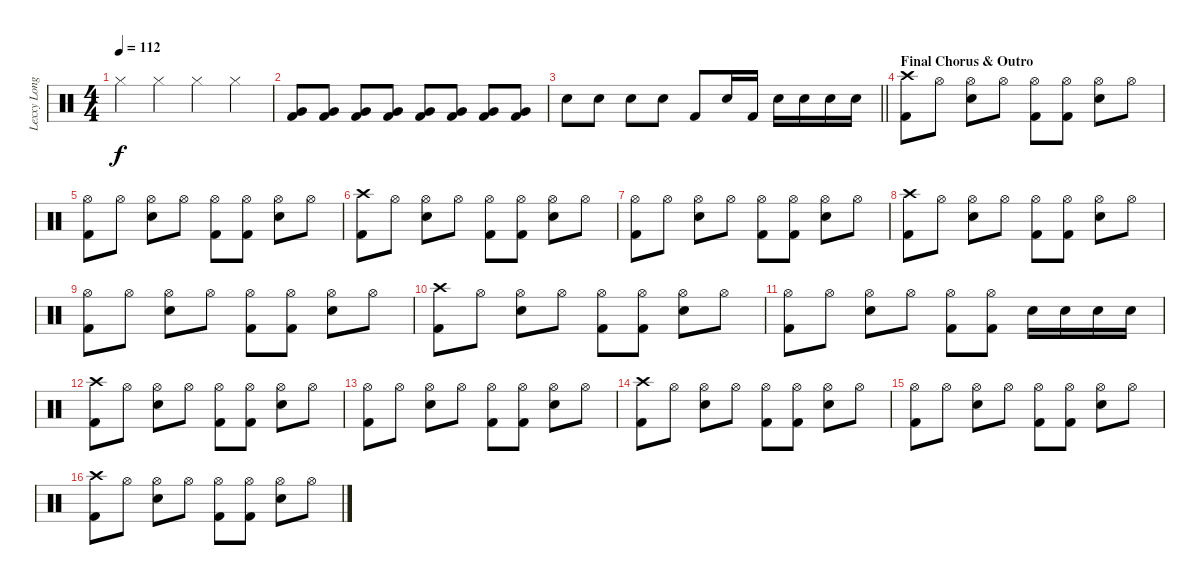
\track ("Lexxy Longlegz (Chuto)" "Lexxy Long") {instrument percussion}
\staff {score}
\articulation defaults
\ts (4 4)
\tempo 112
\clef neutral
\ks c "Hi-Hat (closed)".4{dy f} "Hi-Hat (closed)".4 "Hi-Hat (closed)".4 "Hi-Hat (closed)".4
|
("Very Low Tom (hit)" "Kick (hit) 2").8 ("Very Low Tom (hit)" "Kick (hit) 2").8 ("Very Low Tom (hit)" "Kick (hit) 2").8 ("Very Low Tom (hit)" "Kick (hit) 2").8 ("Very Low Tom (hit)" "Kick (hit) 2").8 ("Very Low Tom (hit)" "Kick (hit) 2").8 ("Very Low Tom (hit)" "Kick (hit) 2").8 ("Very Low Tom (hit)" "Kick (hit) 2").8 |
\barLineRight lightlight "Snare (hit) 2".8 "Snare (hit) 2".8 "Snare (hit) 2".8 "Snare (hit) 2".8 "Kick (hit) 2".8 "Snare (hit) 2".16 "Kick (hit) 2".16 "Snare (hit) 2".16 "Snare (hit) 2".16 "Snare (hit) 2".16 "Snare (hit) 2".16
|
\section ("" "Final Chorus & Outro")
("Crash high (hit)" "Kick (hit) 2").8 "Hi-Hat (open)".8 ("Hi-Hat (open)" "Snare (hit) 2").8 "Hi-Hat (open)".8 ("Hi-Hat (open)" "Kick (hit) 2").8 ("Hi-Hat (open)" "Kick (hit) 2").8 ("Hi-Hat (open)" "Snare (hit) 2").8 "Hi-Hat (open)".8 |
("Hi-Hat (open)" "Kick (hit) 2").8 "Hi-Hat (open)".8 ("Hi-Hat (open)" "Snare (hit) 2").8 "Hi-Hat (open)".8 ("Hi-Hat (open)" "Kick (hit) 2").8 ("Hi-Hat (open)" "Kick (hit) 2").8 ("Hi-Hat (open)" "Snare (hit) 2").8 "Hi-Hat (open)".8 |
("Crash high (hit)" "Kick (hit) 2").8 "Hi-Hat (open)".8 ("Hi-Hat (open)" "Snare (hit) 2").8 "Hi-Hat (open)".8 ("Hi-Hat (open)" "Kick (hit) 2").8 ("Hi-Hat (open)" "Kick (hit) 2").8 ("Hi-Hat (open)" "Snare (hit) 2").8 "Hi-Hat (open)".8 |
("Hi-Hat (open)" "Kick (hit) 2").8 "Hi-Hat (open)".8 ("Hi-Hat (open)" "Snare (hit) 2").8 "Hi-Hat (open)".8 ("Hi-Hat (open)" "Kick (hit) 2").8 ("Hi-Hat (open)" "Kick (hit) 2").8 ("Hi-Hat (open)" "Snare (hit) 2").8 "Hi-Hat (open)".8 |
("Crash high (hit)" "Kick (hit) 2").8 "Hi-Hat (open)".8 ("Hi-Hat (open)" "Snare (hit) 2").8 "Hi-Hat (open)".8 ("Hi-Hat (open)" "Kick (hit) 2").8 ("Hi-Hat (open)" "Kick (hit) 2").8 ("Hi-Hat (open)" "Snare (hit) 2").8 "Hi-Hat (open)".8 |
("Hi-Hat (open)" "Kick (hit) 2").8 "Hi-Hat (open)".8 ("Hi-Hat (open)" "Snare (hit) 2").8 "Hi-Hat (open)".8 ("Hi-Hat (open)" "Kick (hit) 2").8 ("Hi-Hat (open)" "Kick (hit) 2").8 ("Hi-Hat (open)" "Snare (hit) 2").8 "Hi-Hat (open)".8 |
("Crash high (hit)" "Kick (hit) 2").8 "Hi-Hat (open)".8 ("Hi-Hat (open)" "Snare (hit) 2").8 "Hi-Hat (open)".8 ("Hi-Hat (open)" "Kick (hit) 2").8 ("Hi-Hat (open)" "Kick (hit) 2").8 ("Hi-Hat (open)" "Snare (hit) 2").8 "Hi-Hat (open)".8 |
("Hi-Hat (open)" "Kick (hit) 2").8 "Hi-Hat (open)".8 ("Hi-Hat (open)" "Snare (hit) 2").8 "Hi-Hat (open)".8 ("Hi-Hat (open)" "Kick (hit) 2").8 ("Hi-Hat (open)" "Kick (hit) 2").8 "Snare (hit) 2".16 "Snare (hit) 2".16 "Snare (hit) 2".16 "Snare (hit) 2".16 |
("Crash high (hit)" "Kick (hit) 2").8 "Hi-Hat (open)".8 ("Hi-Hat (open)" "Snare (hit) 2").8 "Hi-Hat (open)".8 ("Hi-Hat (open)" "Kick (hit) 2").8 ("Hi-Hat (open)" "Kick (hit) 2").8 ("Hi-Hat (open)" "Snare (hit) 2").8 "Hi-Hat (open)".8 |
("Hi-Hat (open)" "Kick (hit) 2").8 "Hi-Hat (open)".8 ("Hi-Hat (open)" "Snare (hit) 2").8 "Hi-Hat (open)".8 ("Hi-Hat (open)" "Kick (hit) 2").8 ("Hi-Hat (open)" "Kick (hit) 2").8 ("Hi-Hat (open)" "Snare (hit) 2").8 "Hi-Hat (open)".8 |
("Crash high (hit)" "Kick (hit) 2").8 "Hi-Hat (open)".8 ("Hi-Hat (open)" "Snare (hit) 2").8 "Hi-Hat (open)".8 ("Hi-Hat (open)" "Kick (hit) 2").8 ("Hi-Hat (open)" "Kick (hit) 2").8 ("Hi-Hat (open)" "Snare (hit) 2").8 "Hi-Hat (open)".8 |
("Hi-Hat (open)" "Kick (hit) 2").8 "Hi-Hat (open)".8 ("Hi-Hat (open)" "Snare (hit) 2").8 "Hi-Hat (open)".8 ("Hi-Hat (open)" "Kick (hit) 2").8 ("Hi-Hat (open)" "Kick (hit) 2").8 ("Hi-Hat (open)" "Snare (hit) 2").8 "Hi-Hat (open)".8 |
("Crash high (hit)" "Kick (hit) 2").8 "Hi-Hat (open)".8 ("Hi-Hat (open)" "Snare (hit) 2").8 "Hi-Hat (open)".8 ("Hi-Hat (open)" "Kick (hit) 2").8 ("Hi-Hat (open)" "Kick (hit) 2").8 ("Hi-Hat (open)" "Snare (hit) 2").8 "Hi-Hat (open)".8
